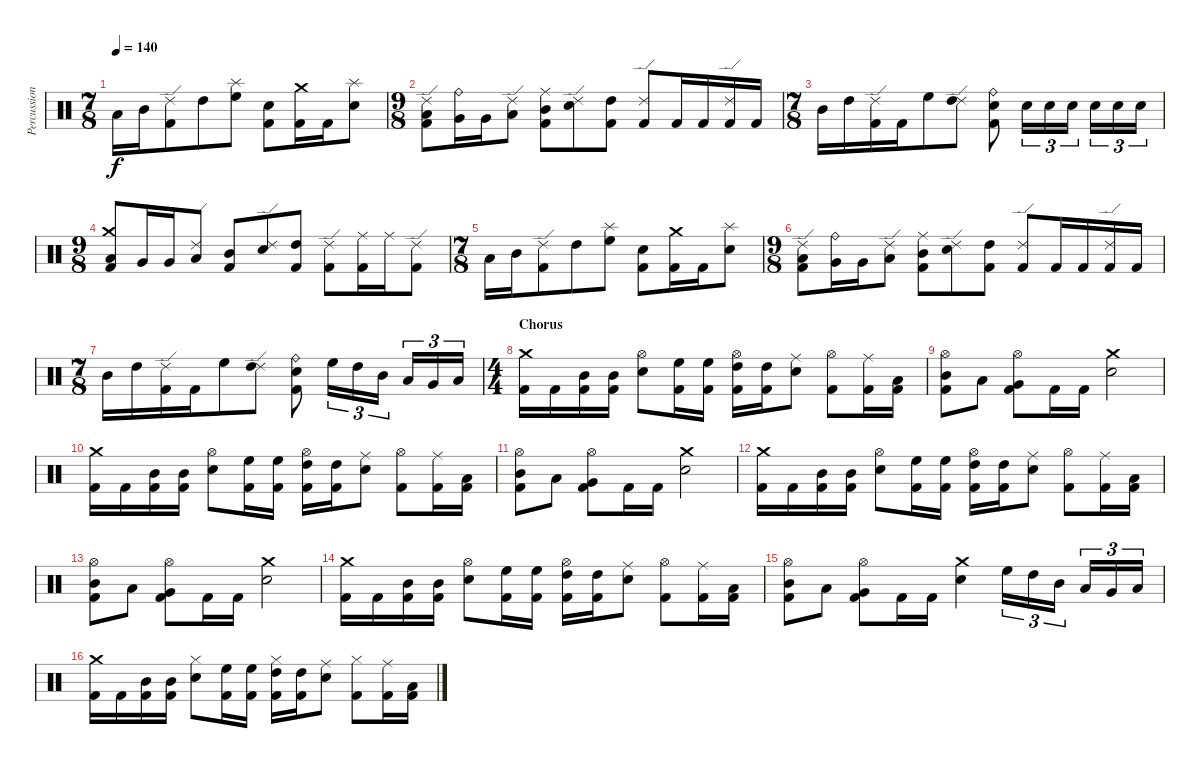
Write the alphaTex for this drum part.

\track ("Percussion" "Percussion") {instrument percussion}
\staff {score}
\articulation defaults
\ts (7 8)
\tempo 140
\clef neutral
\ks c "Low Tom (hit)".16{dy f} "Mid Tom (hit)".16
("Ride (edge) 2" "Kick (hit) 2").8 "High Tom (hit)".8 ("Splash (hit)" "High Floor Tom (hit)").8 ("Electric Snare (hit)" "Kick (hit) 2").8 ("Crash medium (hit)" "Kick (hit) 2").16 "Kick (hit) 2".16 ("Splash (hit)" "Electric Snare (hit)").8 |
\ts (9 8)
("Ride (edge) 2" "Low Floor Tom (hit)" "Kick (hit) 2").8 ("Ride (bell)" "Very Low Tom (hit)").16 "Very Low Tom (hit)".16 ("Ride (edge) 2" "Low Tom (hit)").8 ("Ride (middle)" "Mid Tom (hit)" "Kick (hit) 2").8 ("Ride (edge) 2" "Electric Snare (hit)").8 ("High Tom (hit)" "Kick (hit) 2").8 ("Ride (edge) 2" "Kick (hit) 2").8 "Kick (hit) 2".16 "Kick (hit) 2".16 ("Ride (edge) 2" "Kick (hit) 2").16 "Kick (hit) 2".16 |
\ts (7 8)
"Mid Tom (hit)".16 "High Tom (hit)".16 ("Ride (edge) 2" "Kick (hit) 2").16 "Kick (hit) 2".16 "High Floor Tom (hit)".8 ("Ride (edge) 2" "High Tom (hit)").8 ("Ride (bell)" "Electric Snare (hit)" "Kick (hit) 2").8 "Electric Snare (hit)".16{tu (3 2)} "Electric Snare (hit)".16{tu (3 2)} "Electric Snare (hit)".16{tu (3 2)} "Electric Snare (hit)".16{tu (3 2)} "Electric Snare (hit)".16{tu (3 2)} "Electric Snare (hit)".16{tu (3 2)} |
\ts (9 8)
("Crash medium (hit)" "Low Floor Tom (hit)" "Kick (hit) 2").8 "Very Low Tom (hit)".16 "Very Low Tom (hit)".16 ("Ride (edge) 2" "Low Tom (hit)").8 ("Mid Tom (hit)" "Kick (hit) 2").8 ("Ride (edge) 2" "Electric Snare (hit)").8 ("High Tom (hit)" "Kick (hit) 2").8 ("Ride (edge) 2" "Kick (hit) 2").8 ("Ride (middle)" "Kick (hit) 2").16 "Ride (middle)".16 ("Ride (edge) 2" "Kick (hit) 2").8 |
\ts (7 8)
"Low Tom (hit)".16 "Mid Tom (hit)".16 ("Ride (edge) 2" "Kick (hit) 2").8 "High Tom (hit)".8 ("Splash (hit)" "High Floor Tom (hit)").8 ("Electric Snare (hit)" "Kick (hit) 2").8 ("Crash medium (hit)" "Kick (hit) 2").16 "Kick (hit) 2".16 ("Splash (hit)" "Electric Snare (hit)").8 |
\ts (9 8)
("Ride (edge) 2" "Low Floor Tom (hit)" "Kick (hit) 2").8 ("Ride (bell)" "Very Low Tom (hit)").16 "Very Low Tom (hit)".16 ("Ride (edge) 2" "Low Tom (hit)").8 ("Ride (middle)" "Mid Tom (hit)" "Kick (hit) 2").8 ("Ride (edge) 2" "Electric Snare (hit)").8 ("High Tom (hit)" "Kick (hit) 2").8 ("Ride (edge) 2" "Kick (hit) 2").8 "Kick (hit) 2".16 "Kick (hit) 2".16 ("Ride (edge) 2" "Kick (hit) 2").16 "Kick (hit) 2".16 |
\ts (7 8)
"Mid Tom (hit)".16 "High Tom (hit)".16 ("Ride (edge) 2" "Kick (hit) 2").16 "Kick (hit) 2".16 "High Floor Tom (hit)".8 ("Ride (edge) 2" "High Tom (hit)").8 ("Ride (bell)" "Electric Snare (hit)" "Kick (hit) 2").8 "High Floor Tom (hit)".16{tu (3 2)} "High Tom (hit)".16{tu (3 2)} "Mid Tom (hit)".16{tu (3 2)} "Low Tom (hit)".16{tu (3 2)} "Very Low Tom (hit)".16{tu (3 2)} "Low Floor Tom (hit)".16{tu (3 2)} |
\ts (4 4)
\section ("" "Chorus")
("Crash medium (hit)" "Kick (hit) 2").16 "Kick (hit) 2".16 ("Mid Tom (hit)" "Kick (hit) 2").16 ("Mid Tom (hit)" "Kick (hit) 2").16 ("Hi-Hat (open)" "Electric Snare (hit)").8 ("High Floor Tom (hit)" "Kick (hit) 2").16 ("High Floor Tom (hit)" "Kick (hit) 2").16 ("Hi-Hat (open)" "High Tom (hit)" "Kick (hit) 2").16 ("High Tom (hit)" "Kick (hit) 2").16 ("Ride (middle)" "Electric Snare (hit)").8 ("Hi-Hat (open)" "Kick (hit) 2").8 ("Ride (middle)" "Kick (hit) 2").16 ("Low Tom (hit)" "Kick (hit) 2").16 |
("Hi-Hat (open)" "Mid Tom (hit)" "Kick (hit) 2").8 "Low Tom (hit)".8 ("Hi-Hat (open)" "Very Low Tom (hit)" "Kick (hit) 2").8 "Kick (hit) 2".16 "Kick (hit) 2".16 ("Crash medium (hit)" "Electric Snare (hit)").2 |
("Crash medium (hit)" "Kick (hit) 2").16 "Kick (hit) 2".16 ("Mid Tom (hit)" "Kick (hit) 2").16 ("Mid Tom (hit)" "Kick (hit) 2").16 ("Hi-Hat (open)" "Electric Snare (hit)").8 ("High Floor Tom (hit)" "Kick (hit) 2").16 ("High Floor Tom (hit)" "Kick (hit) 2").16 ("Hi-Hat (open)" "High Tom (hit)" "Kick (hit) 2").16 ("High Tom (hit)" "Kick (hit) 2").16 ("Ride (middle)" "Electric Snare (hit)").8 ("Hi-Hat (open)" "Kick (hit) 2").8 ("Ride (middle)" "Kick (hit) 2").16 ("Low Tom (hit)" "Kick (hit) 2").16 |
("Hi-Hat (open)" "Mid Tom (hit)" "Kick (hit) 2").8 "Low Tom (hit)".8 ("Hi-Hat (open)" "Very Low Tom (hit)" "Kick (hit) 2").8 "Kick (hit) 2".16 "Kick (hit) 2".16 ("Crash medium (hit)" "Electric Snare (hit)").2 |
("Crash medium (hit)" "Kick (hit) 2").16 "Kick (hit) 2".16 ("Mid Tom (hit)" "Kick (hit) 2").16 ("Mid Tom (hit)" "Kick (hit) 2").16 ("Hi-Hat (open)" "Electric Snare (hit)").8 ("High Floor Tom (hit)" "Kick (hit) 2").16 ("High Floor Tom (hit)" "Kick (hit) 2").16 ("Hi-Hat (open)" "High Tom (hit)" "Kick (hit) 2").16 ("High Tom (hit)" "Kick (hit) 2").16 ("Ride (middle)" "Electric Snare (hit)").8 ("Hi-Hat (open)" "Kick (hit) 2").8 ("Ride (middle)" "Kick (hit) 2").16 ("Low Tom (hit)" "Kick (hit) 2").16 |
("Hi-Hat (open)" "Mid Tom (hit)" "Kick (hit) 2").8 "Low Tom (hit)".8 ("Hi-Hat (open)" "Very Low Tom (hit)" "Kick (hit) 2").8 "Kick (hit) 2".16 "Kick (hit) 2".16 ("Crash medium (hit)" "Electric Snare (hit)").2 |
("Crash medium (hit)" "Kick (hit) 2").16 "Kick (hit) 2".16 ("Mid Tom (hit)" "Kick (hit) 2").16 ("Mid Tom (hit)" "Kick (hit) 2").16 ("Hi-Hat (open)" "Electric Snare (hit)").8 ("High Floor Tom (hit)" "Kick (hit) 2").16 ("High Floor Tom (hit)" "Kick (hit) 2").16 ("Hi-Hat (open)" "High Tom (hit)" "Kick (hit) 2").16 ("High Tom (hit)" "Kick (hit) 2").16 ("Ride (middle)" "Electric Snare (hit)").8 ("Hi-Hat (open)" "Kick (hit) 2").8 ("Ride (middle)" "Kick (hit) 2").16 ("Low Tom (hit)" "Kick (hit) 2").16 |
("Hi-Hat (open)" "Mid Tom (hit)" "Kick (hit) 2").8 "Low Tom (hit)".8 ("Hi-Hat (open)" "Very Low Tom (hit)" "Kick (hit) 2").8 "Kick (hit) 2".16 "Kick (hit) 2".16 ("Crash medium (hit)" "Electric Snare (hit)").4 "High Floor Tom (hit)".16{tu (3 2)} "High Tom (hit)".16{tu (3 2)} "Mid Tom (hit)".16{tu (3 2)} "Low Tom (hit)".16{tu (3 2)} "Very Low Tom (hit)".16{tu (3 2)} "Low Floor Tom (hit)".16{tu (3 2)} |
("Crash medium (hit)" "Kick (hit) 2").16 "Kick (hit) 2".16 ("Mid Tom (hit)" "Kick (hit) 2").16 ("Mid Tom (hit)" "Kick (hit) 2").16 ("Hi-Hat (closed)" "Electric Snare (hit)").8 ("High Floor Tom (hit)" "Kick (hit) 2").16 ("High Floor Tom (hit)" "Kick (hit) 2").16 ("Hi-Hat (closed)" "High Tom (hit)" "Kick (hit) 2").16 ("High Tom (hit)" "Kick (hit) 2").16 ("Ride (middle)" "Electric Snare (hit)").8 ("Hi-Hat (closed)" "Kick (hit) 2").8 ("Ride (middle)" "Kick (hit) 2").16 ("Low Tom (hit)" "Kick (hit) 2").16
